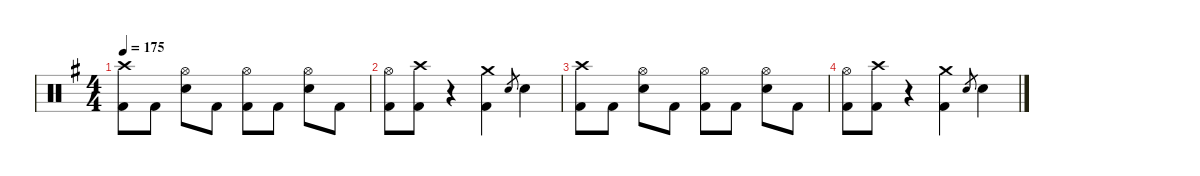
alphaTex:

\hideDynamics
\bracketExtendMode nobrackets
\singleTrackTrackNamePolicy hidden
\multiTrackTrackNamePolicy hidden
\firstSystemTrackNameMode fullname
\firstSystemTrackNameOrientation horizontal
\otherSystemsTrackNameOrientation horizontal
\track ("Drumkit" "Drums") {instrument percussion}
\staff {score}
\articulation defaults
\ts (4 4)
\tempo 175
\clef neutral
\ks g
("Crash high (hit)"{acc forcenatural} "Kick (hit) 2"{acc forcenatural}).8{dy f beam Down} "Kick (hit) 2"{acc forcenatural}.8{dy fff beam Down} ("Hi-Hat (open)"{acc forcenatural} "Snare (hit) 2"{acc forcenatural}).8{dy f beam Down} "Kick (hit) 2"{acc forcenatural}.8{dy fff beam Down} ("Hi-Hat (open)"{acc forcenatural} "Kick (hit) 2"{acc forcenatural}).8{dy f beam Down} "Kick (hit) 2"{acc forcenatural}.8{dy fff beam Down} ("Hi-Hat (open)"{acc forcenatural} "Snare (hit) 2"{acc forcenatural}).8{dy f beam Down} "Kick (hit) 2"{acc forcenatural}.8{dy fff beam Down} |
("Hi-Hat (open)"{acc forcenatural} "Kick (hit) 2"{acc forcenatural}).8{dy f beam Down} ("Crash high (hit)"{acc forcenatural} "Kick (hit) 2"{acc forcenatural}).8{beam Down} r.4{beam Down} ("Crash medium (hit)"{acc forcenatural} "Kick (hit) 2"{acc forcenatural}).4{beam Down} "Snare (hit) 2"{acc forcenatural}.8{gr dy mf beam Up} "Snare (hit) 2"{acc forcenatural}.4{dy f beam Down} |
("Crash high (hit)"{acc forcenatural} "Kick (hit) 2"{acc forcenatural}).8{beam Down} "Kick (hit) 2"{acc forcenatural}.8{dy fff beam Down} ("Hi-Hat (open)"{acc forcenatural} "Snare (hit) 2"{acc forcenatural}).8{dy f beam Down} "Kick (hit) 2"{acc forcenatural}.8{dy fff beam Down} ("Hi-Hat (open)"{acc forcenatural} "Kick (hit) 2"{acc forcenatural}).8{dy f beam Down} "Kick (hit) 2"{acc forcenatural}.8{dy fff beam Down} ("Hi-Hat (open)"{acc forcenatural} "Snare (hit) 2"{acc forcenatural}).8{dy f beam Down} "Kick (hit) 2"{acc forcenatural}.8{dy fff beam Down} |
("Hi-Hat (open)"{acc forcenatural} "Kick (hit) 2"{acc forcenatural}).8{dy f beam Down} ("Crash high (hit)"{acc forcenatural} "Kick (hit) 2"{acc forcenatural}).8{beam Down} r.4{beam Down} ("Crash medium (hit)"{acc forcenatural} "Kick (hit) 2"{acc forcenatural}).4{beam Down} "Snare (hit) 2"{acc forcenatural}.8{gr dy mf beam Up} "Snare (hit) 2"{acc forcenatural}.4{dy f beam Down}
